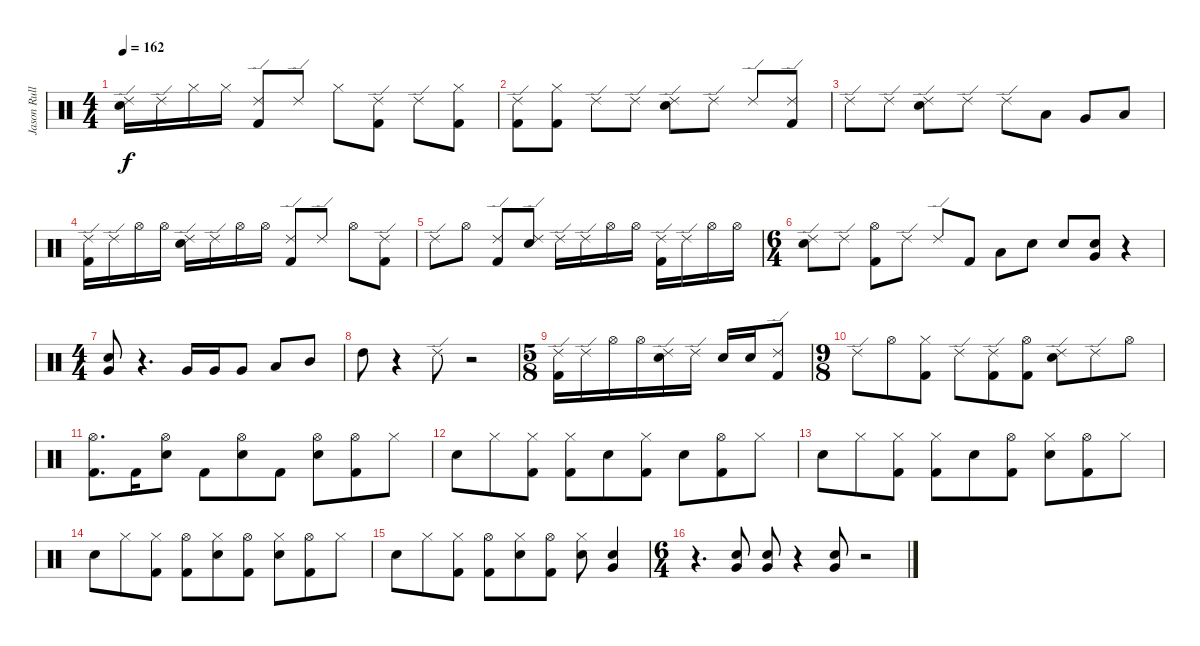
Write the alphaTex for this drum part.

\track ("Jason Rullo" "Jason Rull") {instrument percussion}
\staff {score}
\articulation defaults
\ts (4 4)
\tempo 162
\clef neutral
\ks c
("Ride (edge) 2" "Electric Snare (hit)").16{dy f} "Ride (edge) 2".16 "Hi-Hat (closed)".16 "Hi-Hat (closed)".16 ("Ride (edge) 2" "Kick (hit) 2").8 "Ride (edge) 2".8 "Hi-Hat (closed)".8 ("Ride (edge) 2" "Kick (hit) 2").8 "Ride (edge) 2".8 ("Hi-Hat (closed)" "Kick (hit) 2").8 |
("Ride (edge) 2" "Kick (hit) 2").8 ("Hi-Hat (closed)" "Kick (hit) 2").8 "Ride (edge) 2".8 "Ride (edge) 2".8 ("Ride (edge) 2" "Electric Snare (hit)").8 "Ride (edge) 2".8 "Ride (edge) 2".8 ("Ride (edge) 2" "Kick (hit) 2").8 |
"Ride (edge) 2".8 "Ride (edge) 2".8 ("Ride (edge) 2" "Electric Snare (hit)").8 "Ride (edge) 2".8 "Ride (edge) 2".8 "Low Tom (hit)".8 "Very Low Tom (hit)".8 "Low Floor Tom (hit)".8 |
("Ride (edge) 2" "Kick (hit) 2").16 "Ride (edge) 2".16 "Hi-Hat (open)".16 "Hi-Hat (open)".16 ("Ride (edge) 2" "Electric Snare (hit)").16 "Ride (edge) 2".16 "Hi-Hat (open)".16 "Hi-Hat (open)".16 ("Ride (edge) 2" "Kick (hit) 2").8 "Ride (edge) 2".8 "Hi-Hat (open)".8 ("Ride (edge) 2" "Kick (hit) 2").8 |
"Ride (edge) 2".8 "Hi-Hat (open)".8 ("Ride (edge) 2" "Kick (hit) 2").8 ("Ride (edge) 2" "Electric Snare (hit)").8 "Ride (edge) 2".16 "Ride (edge) 2".16 "Hi-Hat (open)".16 "Hi-Hat (open)".16 ("Ride (edge) 2" "Kick (hit) 2").16 "Ride (edge) 2".16 "Hi-Hat (open)".16 "Hi-Hat (open)".16 |
\ts (6 4)
("Ride (edge) 2" "Electric Snare (hit)").8 "Ride (edge) 2".8 ("Hi-Hat (open)" "Kick (hit) 2").8 "Ride (edge) 2".8 "Ride (edge) 2".8 "Kick (hit) 2".8 "Low Floor Tom (hit)".8 "Electric Snare (hit)".8 "Electric Snare (hit)".8 ("Very Low Tom (hit)" "Electric Snare (hit)").8 r.4 |
\ts (4 4)
("Very Low Tom (hit)" "Electric Snare (hit)").8 r.4{d} "Very Low Tom (hit)".16 "Very Low Tom (hit)".16 "Very Low Tom (hit)".8 "Low Tom (hit)".8 "Mid Tom (hit)".8 |
"High Tom (hit)".8 r.4 "Ride (edge) 2".8 r.2 |
\ts (5 8)
("Ride (edge) 2" "Kick (hit) 2").16 "Ride (edge) 2".16 "Hi-Hat (open)".16 "Hi-Hat (open)".16 ("Ride (edge) 2" "Electric Snare (hit)").16 "Ride (edge) 2".16 "Electric Snare (hit)".16 "Electric Snare (hit)".16 ("Ride (edge) 2" "Kick (hit) 2").8 |
\ts (9 8)
"Ride (edge) 2".8 "Hi-Hat (open)".8 ("Hi-Hat (closed)" "Kick (hit) 2").8 "Ride (edge) 2".8 ("Ride (edge) 2" "Kick (hit) 2").8 ("Hi-Hat (open)" "Kick (hit) 2").8 ("Ride (edge) 2" "Electric Snare (hit)").8 "Ride (edge) 2".8 "Hi-Hat (open)".8 |
("Hi-Hat (open)" "Kick (hit) 2").8{d} "Kick (hit) 2".16 ("Hi-Hat (open)" "Electric Snare (hit)").8 "Kick (hit) 2".8 ("Hi-Hat (open)" "Electric Snare (hit)").8 "Kick (hit) 2".8 ("Hi-Hat (open)" "Electric Snare (hit)").8 ("Hi-Hat (open)" "Kick (hit) 2").8 "Hi-Hat (closed)".8 |
"Electric Snare (hit)".8 "Hi-Hat (closed)".8 ("Hi-Hat (closed)" "Kick (hit) 2").8 ("Hi-Hat (closed)" "Kick (hit) 2").8 "Electric Snare (hit)".8 ("Hi-Hat (closed)" "Kick (hit) 2").8 "Electric Snare (hit)".8 ("Hi-Hat (open)" "Kick (hit) 2").8 "Hi-Hat (closed)".8 |
"Electric Snare (hit)".8 "Hi-Hat (closed)".8 ("Hi-Hat (closed)" "Kick (hit) 2").8 ("Hi-Hat (closed)" "Kick (hit) 2").8 "Electric Snare (hit)".8 ("Hi-Hat (open)" "Kick (hit) 2").8 ("Hi-Hat (closed)" "Electric Snare (hit)").8 ("Hi-Hat (open)" "Kick (hit) 2").8 "Hi-Hat (closed)".8 |
"Electric Snare (hit)".8 "Hi-Hat (closed)".8 ("Hi-Hat (closed)" "Kick (hit) 2").8 ("Hi-Hat (open)" "Kick (hit) 2").8 ("Hi-Hat (closed)" "Electric Snare (hit)").8 ("Hi-Hat (open)" "Kick (hit) 2").8 ("Hi-Hat (closed)" "Electric Snare (hit)").8 ("Hi-Hat (open)" "Kick (hit) 2").8 "Hi-Hat (closed)".8 |
"Electric Snare (hit)".8 "Hi-Hat (closed)".8 ("Hi-Hat (closed)" "Kick (hit) 2").8 ("Hi-Hat (open)" "Kick (hit) 2").8 ("Hi-Hat (closed)" "Electric Snare (hit)").8 ("Hi-Hat (open)" "Kick (hit) 2").8 ("Hi-Hat (closed)" "Electric Snare (hit)").8 ("Very Low Tom (hit)" "Electric Snare (hit)").4 |
\ts (6 4)
r.4{d} ("Very Low Tom (hit)" "Electric Snare (hit)").8 ("Very Low Tom (hit)" "Electric Snare (hit)").8 r.4 ("Very Low Tom (hit)" "Electric Snare (hit)").8 r.2
